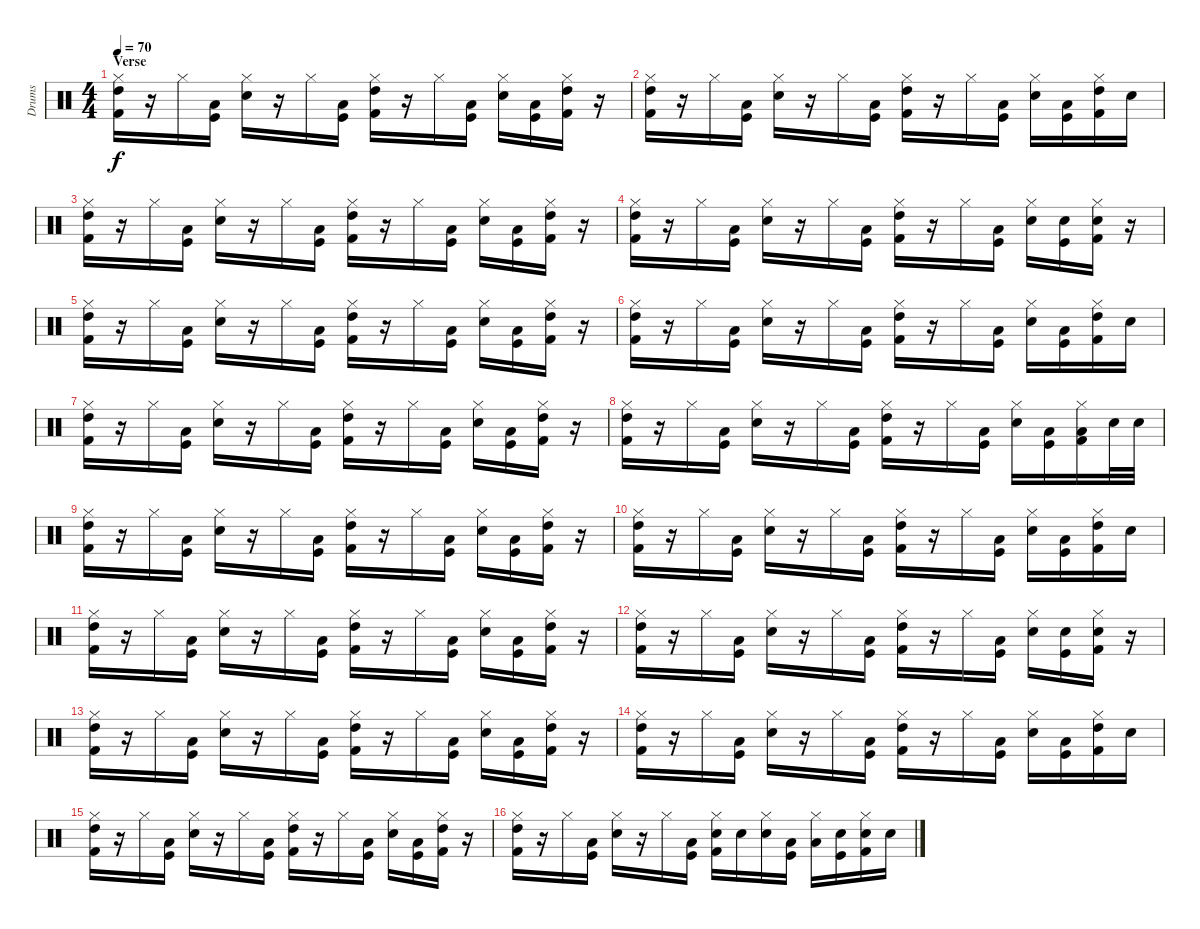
\track ("Drums" "Drums") {instrument percussion}
\staff {score}
\articulation defaults
\ts (4 4)
\section ("" "Verse")
\tempo 70
\clef neutral
\ks c
("Hi-Hat (closed)" "High Tom (hit)" "Kick (hit) 2").16{dy f} r.16 "Hi-Hat (closed)".16 ("Low Tom (hit)" "Kick (hit)").16 ("Hi-Hat (closed)" "Snare (hit) 2").16 r.16 "Hi-Hat (closed)".16 ("Low Tom (hit)" "Kick (hit)").16 ("Hi-Hat (closed)" "High Tom (hit)" "Kick (hit) 2").16 r.16 "Hi-Hat (closed)".16 ("Low Tom (hit)" "Kick (hit)").16 ("Hi-Hat (closed)" "Snare (hit) 2").16 ("Low Tom (hit)" "Kick (hit)").16 ("Hi-Hat (closed)" "High Tom (hit)" "Kick (hit) 2").16 r.16 |
("Hi-Hat (closed)" "High Tom (hit)" "Kick (hit) 2").16 r.16 "Hi-Hat (closed)".16 ("Low Tom (hit)" "Kick (hit)").16 ("Hi-Hat (closed)" "Snare (hit) 2").16 r.16 "Hi-Hat (closed)".16 ("Low Tom (hit)" "Kick (hit)").16 ("Hi-Hat (closed)" "High Tom (hit)" "Kick (hit) 2").16 r.16 "Hi-Hat (closed)".16 ("Low Tom (hit)" "Kick (hit)").16 ("Hi-Hat (closed)" "Snare (hit) 2").16 ("Low Tom (hit)" "Kick (hit)").16 ("Hi-Hat (closed)" "High Tom (hit)" "Kick (hit) 2").16 "Snare (hit) 2".16 |
("Hi-Hat (closed)" "High Tom (hit)" "Kick (hit) 2").16 r.16 "Hi-Hat (closed)".16 ("Low Tom (hit)" "Kick (hit)").16 ("Hi-Hat (closed)" "Snare (hit) 2").16 r.16 "Hi-Hat (closed)".16 ("Low Tom (hit)" "Kick (hit)").16 ("Hi-Hat (closed)" "High Tom (hit)" "Kick (hit) 2").16 r.16 "Hi-Hat (closed)".16 ("Low Tom (hit)" "Kick (hit)").16 ("Hi-Hat (closed)" "Snare (hit) 2").16 ("Low Tom (hit)" "Kick (hit)").16 ("Hi-Hat (closed)" "High Tom (hit)" "Kick (hit) 2").16 r.16 |
("Hi-Hat (closed)" "High Tom (hit)" "Kick (hit) 2").16 r.16 "Hi-Hat (closed)".16 ("Low Tom (hit)" "Kick (hit)").16 ("Hi-Hat (closed)" "Snare (hit) 2").16 r.16 "Hi-Hat (closed)".16 ("Low Tom (hit)" "Kick (hit)").16 ("Hi-Hat (closed)" "High Tom (hit)" "Kick (hit) 2").16 r.16 "Hi-Hat (closed)".16 ("Low Tom (hit)" "Kick (hit)").16 ("Hi-Hat (closed)" "Snare (hit) 2").16 ("Snare (hit) 2" "Kick (hit)").16 ("Hi-Hat (closed)" "Snare (hit) 2" "Kick (hit) 2").16 r.16 |
("Hi-Hat (closed)" "High Tom (hit)" "Kick (hit) 2").16 r.16 "Hi-Hat (closed)".16 ("Low Tom (hit)" "Kick (hit)").16 ("Hi-Hat (closed)" "Snare (hit) 2").16 r.16 "Hi-Hat (closed)".16 ("Low Tom (hit)" "Kick (hit)").16 ("Hi-Hat (closed)" "High Tom (hit)" "Kick (hit) 2").16 r.16 "Hi-Hat (closed)".16 ("Low Tom (hit)" "Kick (hit)").16 ("Hi-Hat (closed)" "Snare (hit) 2").16 ("Low Tom (hit)" "Kick (hit)").16 ("Hi-Hat (closed)" "High Tom (hit)" "Kick (hit) 2").16 r.16 |
("Hi-Hat (closed)" "High Tom (hit)" "Kick (hit) 2").16 r.16 "Hi-Hat (closed)".16 ("Low Tom (hit)" "Kick (hit)").16 ("Hi-Hat (closed)" "Snare (hit) 2").16 r.16 "Hi-Hat (closed)".16 ("Low Tom (hit)" "Kick (hit)").16 ("Hi-Hat (closed)" "High Tom (hit)" "Kick (hit) 2").16 r.16 "Hi-Hat (closed)".16 ("Low Tom (hit)" "Kick (hit)").16 ("Hi-Hat (closed)" "Snare (hit) 2").16 ("Low Tom (hit)" "Kick (hit)").16 ("Hi-Hat (closed)" "High Tom (hit)" "Kick (hit) 2").16 "Snare (hit) 2".16 |
("Hi-Hat (closed)" "High Tom (hit)" "Kick (hit) 2").16 r.16 "Hi-Hat (closed)".16 ("Low Tom (hit)" "Kick (hit)").16 ("Hi-Hat (closed)" "Snare (hit) 2").16 r.16 "Hi-Hat (closed)".16 ("Low Tom (hit)" "Kick (hit)").16 ("Hi-Hat (closed)" "High Tom (hit)" "Kick (hit) 2").16 r.16 "Hi-Hat (closed)".16 ("Low Tom (hit)" "Kick (hit)").16 ("Hi-Hat (closed)" "Snare (hit) 2").16 ("Low Tom (hit)" "Kick (hit)").16 ("Hi-Hat (closed)" "High Tom (hit)" "Kick (hit) 2").16 r.16 |
("Hi-Hat (closed)" "High Tom (hit)" "Kick (hit) 2").16 r.16 "Hi-Hat (closed)".16 ("Low Tom (hit)" "Kick (hit)").16 ("Hi-Hat (closed)" "Snare (hit) 2").16 r.16 "Hi-Hat (closed)".16 ("Low Tom (hit)" "Kick (hit)").16 ("Hi-Hat (closed)" "High Tom (hit)" "Kick (hit) 2").16 r.16 "Hi-Hat (closed)".16 ("Low Tom (hit)" "Kick (hit)").16 ("Hi-Hat (closed)" "Snare (hit) 2").16 ("Low Tom (hit)" "Kick (hit)").16 ("Hi-Hat (closed)" "Low Tom (hit)" "Kick (hit) 2").16 "Snare (hit) 2".32 "Snare (hit) 2".32 |
("Hi-Hat (closed)" "High Tom (hit)" "Kick (hit) 2").16 r.16 "Hi-Hat (closed)".16 ("Low Tom (hit)" "Kick (hit)").16 ("Hi-Hat (closed)" "Snare (hit) 2").16 r.16 "Hi-Hat (closed)".16 ("Low Tom (hit)" "Kick (hit)").16 ("Hi-Hat (closed)" "High Tom (hit)" "Kick (hit) 2").16 r.16 "Hi-Hat (closed)".16 ("Low Tom (hit)" "Kick (hit)").16 ("Hi-Hat (closed)" "Snare (hit) 2").16 ("Low Tom (hit)" "Kick (hit)").16 ("Hi-Hat (closed)" "High Tom (hit)" "Kick (hit) 2").16 r.16 |
("Hi-Hat (closed)" "High Tom (hit)" "Kick (hit) 2").16 r.16 "Hi-Hat (closed)".16 ("Low Tom (hit)" "Kick (hit)").16 ("Hi-Hat (closed)" "Snare (hit) 2").16 r.16 "Hi-Hat (closed)".16 ("Low Tom (hit)" "Kick (hit)").16 ("Hi-Hat (closed)" "High Tom (hit)" "Kick (hit) 2").16 r.16 "Hi-Hat (closed)".16 ("Low Tom (hit)" "Kick (hit)").16 ("Hi-Hat (closed)" "Snare (hit) 2").16 ("Low Tom (hit)" "Kick (hit)").16 ("Hi-Hat (closed)" "High Tom (hit)" "Kick (hit) 2").16 "Snare (hit) 2".16 |
("Hi-Hat (closed)" "High Tom (hit)" "Kick (hit) 2").16 r.16 "Hi-Hat (closed)".16 ("Low Tom (hit)" "Kick (hit)").16 ("Hi-Hat (closed)" "Snare (hit) 2").16 r.16 "Hi-Hat (closed)".16 ("Low Tom (hit)" "Kick (hit)").16 ("Hi-Hat (closed)" "High Tom (hit)" "Kick (hit) 2").16 r.16 "Hi-Hat (closed)".16 ("Low Tom (hit)" "Kick (hit)").16 ("Hi-Hat (closed)" "Snare (hit) 2").16 ("Low Tom (hit)" "Kick (hit)").16 ("Hi-Hat (closed)" "High Tom (hit)" "Kick (hit) 2").16 r.16 |
("Hi-Hat (closed)" "High Tom (hit)" "Kick (hit) 2").16 r.16 "Hi-Hat (closed)".16 ("Low Tom (hit)" "Kick (hit)").16 ("Hi-Hat (closed)" "Snare (hit) 2").16 r.16 "Hi-Hat (closed)".16 ("Low Tom (hit)" "Kick (hit)").16 ("Hi-Hat (closed)" "High Tom (hit)" "Kick (hit) 2").16 r.16 "Hi-Hat (closed)".16 ("Low Tom (hit)" "Kick (hit)").16 ("Hi-Hat (closed)" "Snare (hit) 2").16 ("Snare (hit) 2" "Kick (hit)").16 ("Hi-Hat (closed)" "Snare (hit) 2" "Kick (hit) 2").16 r.16 |
("Hi-Hat (closed)" "High Tom (hit)" "Kick (hit) 2").16 r.16 "Hi-Hat (closed)".16 ("Low Tom (hit)" "Kick (hit)").16 ("Hi-Hat (closed)" "Snare (hit) 2").16 r.16 "Hi-Hat (closed)".16 ("Low Tom (hit)" "Kick (hit)").16 ("Hi-Hat (closed)" "High Tom (hit)" "Kick (hit) 2").16 r.16 "Hi-Hat (closed)".16 ("Low Tom (hit)" "Kick (hit)").16 ("Hi-Hat (closed)" "Snare (hit) 2").16 ("Low Tom (hit)" "Kick (hit)").16 ("Hi-Hat (closed)" "High Tom (hit)" "Kick (hit) 2").16 r.16 |
("Hi-Hat (closed)" "High Tom (hit)" "Kick (hit) 2").16 r.16 "Hi-Hat (closed)".16 ("Low Tom (hit)" "Kick (hit)").16 ("Hi-Hat (closed)" "Snare (hit) 2").16 r.16 "Hi-Hat (closed)".16 ("Low Tom (hit)" "Kick (hit)").16 ("Hi-Hat (closed)" "High Tom (hit)" "Kick (hit) 2").16 r.16 "Hi-Hat (closed)".16 ("Low Tom (hit)" "Kick (hit)").16 ("Hi-Hat (closed)" "Snare (hit) 2").16 ("Low Tom (hit)" "Kick (hit)").16 ("Hi-Hat (closed)" "High Tom (hit)" "Kick (hit) 2").16 "Snare (hit) 2".16 |
("Hi-Hat (closed)" "High Tom (hit)" "Kick (hit) 2").16 r.16 "Hi-Hat (closed)".16 ("Low Tom (hit)" "Kick (hit)").16 ("Hi-Hat (closed)" "Snare (hit) 2").16 r.16 "Hi-Hat (closed)".16 ("Low Tom (hit)" "Kick (hit)").16 ("Hi-Hat (closed)" "High Tom (hit)" "Kick (hit) 2").16 r.16 "Hi-Hat (closed)".16 ("Low Tom (hit)" "Kick (hit)").16 ("Hi-Hat (closed)" "Snare (hit) 2").16 ("Low Tom (hit)" "Kick (hit)").16 ("Hi-Hat (closed)" "High Tom (hit)" "Kick (hit) 2").16 r.16 |
("Hi-Hat (closed)" "High Tom (hit)" "Kick (hit) 2").16 r.16 "Hi-Hat (closed)".16 ("Low Tom (hit)" "Kick (hit)").16 ("Hi-Hat (closed)" "Snare (hit) 2").16 r.16 "Hi-Hat (closed)".16 ("Low Tom (hit)" "Kick (hit)").16 ("Hi-Hat (closed)" "Snare (hit) 2" "Kick (hit) 2").16 "Snare (hit) 2".16 ("Hi-Hat (closed)" "Snare (hit) 2").16 ("Low Tom (hit)" "Kick (hit)").16 ("Hi-Hat (closed)" "Low Tom (hit)").16 ("Snare (hit) 2" "Kick (hit)").16 ("Hi-Hat (closed)" "Snare (hit) 2" "Kick (hit) 2").16 "Snare (hit) 2".16
